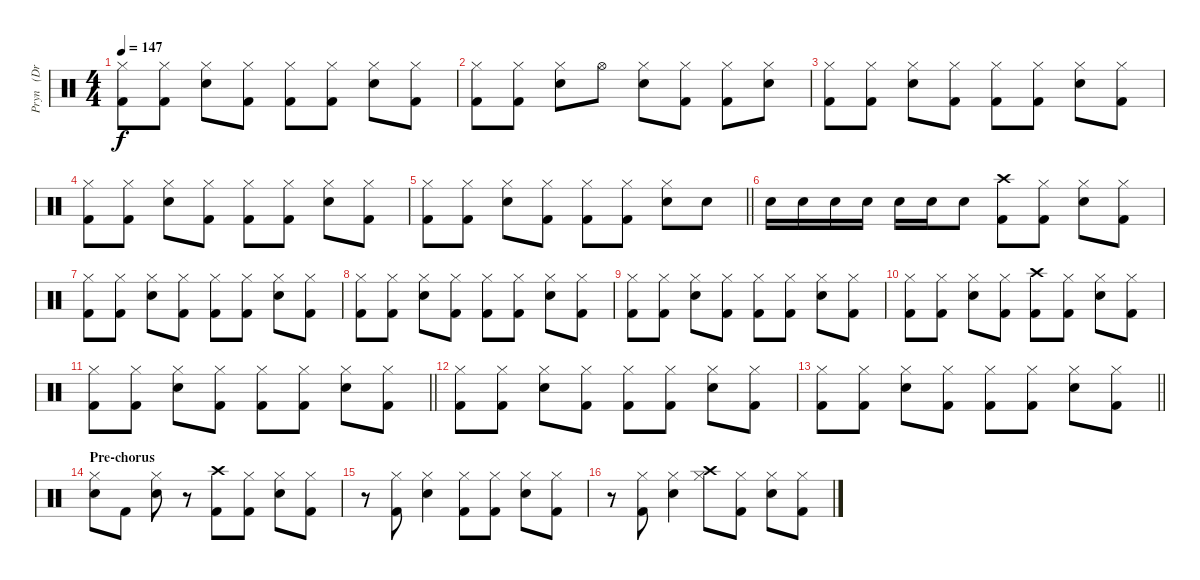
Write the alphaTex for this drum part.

\track ("Pryn   (Drums)" "Pryn   (Dr") {instrument percussion}
\staff {score}
\articulation defaults
\ts (4 4)
\tempo 147
\clef neutral
\ks c
("Kick (hit) 2" "Hi-Hat (closed)").8{dy f} ("Kick (hit) 2" "Hi-Hat (closed)").8 ("Electric Snare (hit)" "Hi-Hat (closed)").8 ("Kick (hit) 2" "Hi-Hat (closed)").8 ("Hi-Hat (closed)" "Kick (hit) 2").8 ("Kick (hit) 2" "Hi-Hat (closed)").8 ("Electric Snare (hit)" "Hi-Hat (closed)").8 ("Kick (hit) 2" "Hi-Hat (closed)").8 |
("Kick (hit) 2" "Hi-Hat (closed)").8 ("Kick (hit) 2" "Hi-Hat (closed)").8 ("Electric Snare (hit)" "Hi-Hat (closed)").8 "Hi-Hat (open)".8 ("Electric Snare (hit)" "Hi-Hat (closed)").8 ("Kick (hit) 2" "Hi-Hat (closed)").8 ("Kick (hit) 2" "Hi-Hat (closed)").8 ("Hi-Hat (closed)" "Electric Snare (hit)").8 |
("Kick (hit) 2" "Hi-Hat (closed)").8 ("Kick (hit) 2" "Hi-Hat (closed)").8 ("Electric Snare (hit)" "Hi-Hat (closed)").8 ("Kick (hit) 2" "Hi-Hat (closed)").8 ("Hi-Hat (closed)" "Kick (hit) 2").8 ("Kick (hit) 2" "Hi-Hat (closed)").8 ("Electric Snare (hit)" "Hi-Hat (closed)").8 ("Kick (hit) 2" "Hi-Hat (closed)").8 |
("Kick (hit) 2" "Hi-Hat (closed)").8 ("Kick (hit) 2" "Hi-Hat (closed)").8 ("Electric Snare (hit)" "Hi-Hat (closed)").8 ("Kick (hit) 2" "Hi-Hat (closed)").8 ("Hi-Hat (closed)" "Kick (hit) 2").8 ("Kick (hit) 2" "Hi-Hat (closed)").8 ("Electric Snare (hit)" "Hi-Hat (closed)").8 ("Kick (hit) 2" "Hi-Hat (closed)").8 |
\barLineRight lightlight
("Kick (hit) 2" "Hi-Hat (closed)").8 ("Kick (hit) 2" "Hi-Hat (closed)").8 ("Electric Snare (hit)" "Hi-Hat (closed)").8 ("Kick (hit) 2" "Hi-Hat (closed)").8 ("Kick (hit) 2" "Hi-Hat (closed)").8 ("Kick (hit) 2" "Hi-Hat (closed)").8 ("Electric Snare (hit)" "Hi-Hat (closed)").8 "Electric Snare (hit)".8 |
"Electric Snare (hit)".16 "Electric Snare (hit)".16 "Electric Snare (hit)".16 "Electric Snare (hit)".16 "Electric Snare (hit)".16 "Electric Snare (hit)".16 "Electric Snare (hit)".8 ("Kick (hit) 2" "Crash high (hit)").8 ("Kick (hit) 2" "Hi-Hat (closed)").8 ("Electric Snare (hit)" "Hi-Hat (closed)").8 ("Kick (hit) 2" "Hi-Hat (closed)").8 |
("Kick (hit) 2" "Hi-Hat (closed)").8 ("Kick (hit) 2" "Hi-Hat (closed)").8 ("Electric Snare (hit)" "Hi-Hat (closed)").8 ("Kick (hit) 2" "Hi-Hat (closed)").8 ("Hi-Hat (closed)" "Kick (hit) 2").8 ("Kick (hit) 2" "Hi-Hat (closed)").8 ("Electric Snare (hit)" "Hi-Hat (closed)").8 ("Kick (hit) 2" "Hi-Hat (closed)").8 |
("Kick (hit) 2" "Hi-Hat (closed)").8 ("Kick (hit) 2" "Hi-Hat (closed)").8 ("Electric Snare (hit)" "Hi-Hat (closed)").8 ("Kick (hit) 2" "Hi-Hat (closed)").8 ("Hi-Hat (closed)" "Kick (hit) 2").8 ("Kick (hit) 2" "Hi-Hat (closed)").8 ("Electric Snare (hit)" "Hi-Hat (closed)").8 ("Kick (hit) 2" "Hi-Hat (closed)").8 |
("Kick (hit) 2" "Hi-Hat (closed)").8 ("Kick (hit) 2" "Hi-Hat (closed)").8 ("Electric Snare (hit)" "Hi-Hat (closed)").8 ("Kick (hit) 2" "Hi-Hat (closed)").8 ("Hi-Hat (closed)" "Kick (hit) 2").8 ("Kick (hit) 2" "Hi-Hat (closed)").8 ("Electric Snare (hit)" "Hi-Hat (closed)").8 ("Kick (hit) 2" "Hi-Hat (closed)").8 |
("Kick (hit) 2" "Hi-Hat (closed)").8 ("Kick (hit) 2" "Hi-Hat (closed)").8 ("Electric Snare (hit)" "Hi-Hat (closed)").8 ("Kick (hit) 2" "Hi-Hat (closed)").8 ("Crash high (hit)" "Kick (hit) 2").8 ("Kick (hit) 2" "Hi-Hat (closed)").8 ("Electric Snare (hit)" "Hi-Hat (closed)").8 ("Kick (hit) 2" "Hi-Hat (closed)").8 |
\barLineRight lightlight
("Kick (hit) 2" "Hi-Hat (closed)").8 ("Kick (hit) 2" "Hi-Hat (closed)").8 ("Electric Snare (hit)" "Hi-Hat (closed)").8 ("Kick (hit) 2" "Hi-Hat (closed)").8 ("Hi-Hat (closed)" "Kick (hit) 2").8 ("Kick (hit) 2" "Hi-Hat (closed)").8 ("Electric Snare (hit)" "Hi-Hat (closed)").8 ("Kick (hit) 2" "Hi-Hat (closed)").8 |
("Kick (hit) 2" "Hi-Hat (closed)").8 ("Kick (hit) 2" "Hi-Hat (closed)").8 ("Electric Snare (hit)" "Hi-Hat (closed)").8 ("Kick (hit) 2" "Hi-Hat (closed)").8 ("Hi-Hat (closed)" "Kick (hit) 2").8 ("Kick (hit) 2" "Hi-Hat (closed)").8 ("Electric Snare (hit)" "Hi-Hat (closed)").8 ("Kick (hit) 2" "Hi-Hat (closed)").8 |
\barLineRight lightlight
("Kick (hit) 2" "Hi-Hat (closed)").8 ("Kick (hit) 2" "Hi-Hat (closed)").8 ("Electric Snare (hit)" "Hi-Hat (closed)").8 ("Kick (hit) 2" "Hi-Hat (closed)").8 ("Hi-Hat (closed)" "Kick (hit) 2").8 ("Kick (hit) 2" "Hi-Hat (closed)").8 ("Electric Snare (hit)" "Hi-Hat (closed)").8 ("Kick (hit) 2" "Hi-Hat (closed)").8 |
\section ("" "Pre-chorus")
("Electric Snare (hit)" "Hi-Hat (closed)").8 "Kick (hit) 2".8 ("Electric Snare (hit)" "Hi-Hat (closed)").8 r.8 ("Kick (hit) 2" "Crash high (hit)").8 ("Kick (hit) 2" "Hi-Hat (closed)").8 ("Electric Snare (hit)" "Hi-Hat (closed)").8 ("Kick (hit) 2" "Hi-Hat (closed)").8 |
r.8 ("Kick (hit) 2" "Hi-Hat (closed)").8 ("Electric Snare (hit)" "Hi-Hat (closed)").4 ("Kick (hit) 2" "Hi-Hat (closed)").8 ("Kick (hit) 2" "Hi-Hat (closed)").8 ("Electric Snare (hit)" "Hi-Hat (closed)").8 ("Kick (hit) 2" "Hi-Hat (closed)").8 |
r.8 ("Kick (hit) 2" "Hi-Hat (closed)").8 ("Electric Snare (hit)" "Hi-Hat (closed)").4 ("Crash high (hit)" "Hi-Hat (closed)").8 ("Kick (hit) 2" "Hi-Hat (closed)").8 ("Electric Snare (hit)" "Hi-Hat (closed)").8 ("Kick (hit) 2" "Hi-Hat (closed)").8
